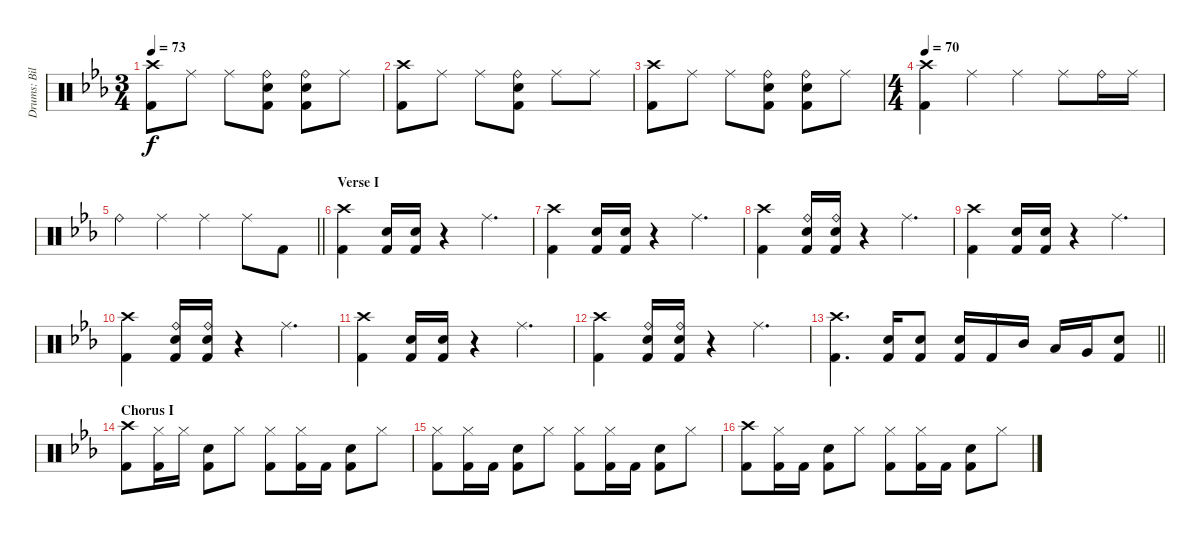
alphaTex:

\track ("Drums: Bill" "Drums: Bil") {instrument percussion}
\staff {score}
\articulation defaults
\ts (3 4)
\tempo 73
\clef neutral
\ks eb
("Crash high (hit)" "Kick (hit) 2").8{dy f} "Ride (middle)".8 "Ride (middle)".8 ("Ride (bell)" "Snare (hit) 2" "Kick (hit) 2").8 ("Ride (bell)" "Snare (hit) 2" "Kick (hit) 2").8 "Ride (middle)".8 |
("Crash high (hit)" "Kick (hit) 2").8 "Ride (middle)".8 "Ride (middle)".8 ("Ride (bell)" "Snare (hit) 2" "Kick (hit) 2").8 "Ride (middle)".8 "Ride (middle)".8 |
("Crash high (hit)" "Kick (hit) 2").8 "Ride (middle)".8 "Ride (middle)".8 ("Ride (bell)" "Snare (hit) 2" "Kick (hit) 2").8 ("Ride (bell)" "Snare (hit) 2" "Kick (hit) 2").8 "Ride (middle)".8 |
\ts (4 4)
\tempo 70
("Crash high (hit)" "Kick (hit) 2").4 "Ride (middle)".4 "Ride (middle)".4 "Ride (middle)".8 "Ride (bell)".16 "Ride (middle)".16 |
\barLineRight lightlight "Ride (bell)".4 "Ride (middle)".4 "Ride (middle)".4 "Ride (middle)".8 "Kick (hit) 2".8
|
\section ("" "Verse I")
("Crash high (hit)" "Kick (hit) 2").4 ("Electric Snare (hit)" "Kick (hit) 2").16 ("Electric Snare (hit)" "Kick (hit) 2").16 r.4 "Ride (middle)".4{d} |
("Crash high (hit)" "Kick (hit) 2").4 ("Electric Snare (hit)" "Kick (hit) 2").16 ("Electric Snare (hit)" "Kick (hit) 2").16 r.4 "Ride (middle)".4{d} |
("Crash high (hit)" "Kick (hit) 2").4 ("Ride (bell)" "Electric Snare (hit)" "Kick (hit) 2").16 ("Ride (bell)" "Electric Snare (hit)" "Kick (hit) 2").16 r.4 "Ride (middle)".4{d} |
("Crash high (hit)" "Kick (hit) 2").4 ("Electric Snare (hit)" "Kick (hit) 2").16 ("Electric Snare (hit)" "Kick (hit) 2").16 r.4 "Ride (middle)".4{d} |
("Crash high (hit)" "Kick (hit) 2").4 ("Ride (bell)" "Electric Snare (hit)" "Kick (hit) 2").16 ("Ride (bell)" "Electric Snare (hit)" "Kick (hit) 2").16 r.4 "Ride (middle)".4{d} |
("Crash high (hit)" "Kick (hit) 2").4 ("Electric Snare (hit)" "Kick (hit) 2").16 ("Electric Snare (hit)" "Kick (hit) 2").16 r.4 "Ride (middle)".4{d} |
("Crash high (hit)" "Kick (hit) 2").4 ("Ride (bell)" "Electric Snare (hit)" "Kick (hit) 2").16 ("Ride (bell)" "Electric Snare (hit)" "Kick (hit) 2").16 r.4 "Ride (middle)".4{d} |
\barLineRight lightlight
("Crash high (hit)" "Kick (hit) 2").4{d} ("Electric Snare (hit)" "Kick (hit) 2").16 ("Electric Snare (hit)" "Kick (hit) 2").8 ("Electric Snare (hit)" "Kick (hit) 2").16 "Kick (hit) 2".16 "Mid Tom (hit)".16 "Low Tom (hit)".16 "Very Low Tom (hit)".16 ("Snare (hit) 2" "Kick (hit) 2").8 |
\section ("" "Chorus I")
("Crash high (hit)" "Kick (hit) 2").8 ("Hi-Hat (closed)" "Kick (hit) 2").16 "Hi-Hat (closed)".16 ("Snare (hit) 2" "Kick (hit) 2").8 "Hi-Hat (closed)".8 ("Hi-Hat (closed)" "Kick (hit) 2").8 ("Hi-Hat (closed)" "Kick (hit) 2").16 "Kick (hit) 2".16 ("Snare (hit) 2" "Kick (hit) 2").8 "Hi-Hat (closed)".8 |
("Hi-Hat (closed)" "Kick (hit) 2").8 ("Hi-Hat (closed)" "Kick (hit) 2").16 "Kick (hit) 2".16 ("Snare (hit) 2" "Kick (hit) 2").8 "Hi-Hat (closed)".8 ("Hi-Hat (closed)" "Kick (hit) 2").8 ("Hi-Hat (closed)" "Kick (hit) 2").16 "Kick (hit) 2".16 ("Snare (hit) 2" "Kick (hit) 2").8 "Hi-Hat (closed)".8 |
("Crash high (hit)" "Kick (hit) 2").8 ("Hi-Hat (closed)" "Kick (hit) 2").16 "Kick (hit) 2".16 ("Snare (hit) 2" "Kick (hit) 2").8 "Hi-Hat (closed)".8 ("Hi-Hat (closed)" "Kick (hit) 2").8 ("Hi-Hat (closed)" "Kick (hit) 2").16 "Kick (hit) 2".16 ("Snare (hit) 2" "Kick (hit) 2").8 "Hi-Hat (closed)".8
